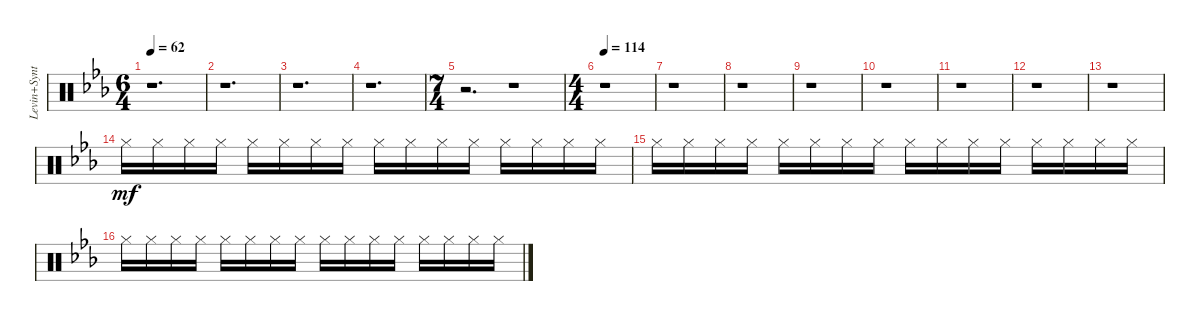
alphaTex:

\track ("Levin+Synth" "Levin+Synt") {instrument percussion}
\staff {score}
\articulation defaults
\ts (6 4)
\tempo 62
\clef neutral
\ks eb
r.1{d dy mf} |
r.1{d} |
r.1{d} |
r.1{d} |
\ts (7 4)
r.2{d} r.1 |
\ts (4 4)
\tempo 114
r.1 |
r.1 |
r.1 |
r.1 |
r.1 |
r.1 |
r.1 |
r.1 |
"Hi-Hat (closed)".16 "Hi-Hat (closed)".16 "Hi-Hat (closed)".16 "Hi-Hat (closed)".16 "Hi-Hat (closed)".16 "Hi-Hat (closed)".16 "Hi-Hat (closed)".16 "Hi-Hat (closed)".16 "Hi-Hat (closed)".16 "Hi-Hat (closed)".16 "Hi-Hat (closed)".16 "Hi-Hat (closed)".16 "Hi-Hat (closed)".16 "Hi-Hat (closed)".16 "Hi-Hat (closed)".16 "Hi-Hat (closed)".16 |
"Hi-Hat (closed)".16 "Hi-Hat (closed)".16 "Hi-Hat (closed)".16 "Hi-Hat (closed)".16 "Hi-Hat (closed)".16 "Hi-Hat (closed)".16 "Hi-Hat (closed)".16 "Hi-Hat (closed)".16 "Hi-Hat (closed)".16 "Hi-Hat (closed)".16 "Hi-Hat (closed)".16 "Hi-Hat (closed)".16 "Hi-Hat (closed)".16 "Hi-Hat (closed)".16 "Hi-Hat (closed)".16 "Hi-Hat (closed)".16 |
"Hi-Hat (closed)".16 "Hi-Hat (closed)".16 "Hi-Hat (closed)".16 "Hi-Hat (closed)".16 "Hi-Hat (closed)".16 "Hi-Hat (closed)".16 "Hi-Hat (closed)".16 "Hi-Hat (closed)".16 "Hi-Hat (closed)".16 "Hi-Hat (closed)".16 "Hi-Hat (closed)".16 "Hi-Hat (closed)".16 "Hi-Hat (closed)".16 "Hi-Hat (closed)".16 "Hi-Hat (closed)".16 "Hi-Hat (closed)".16
